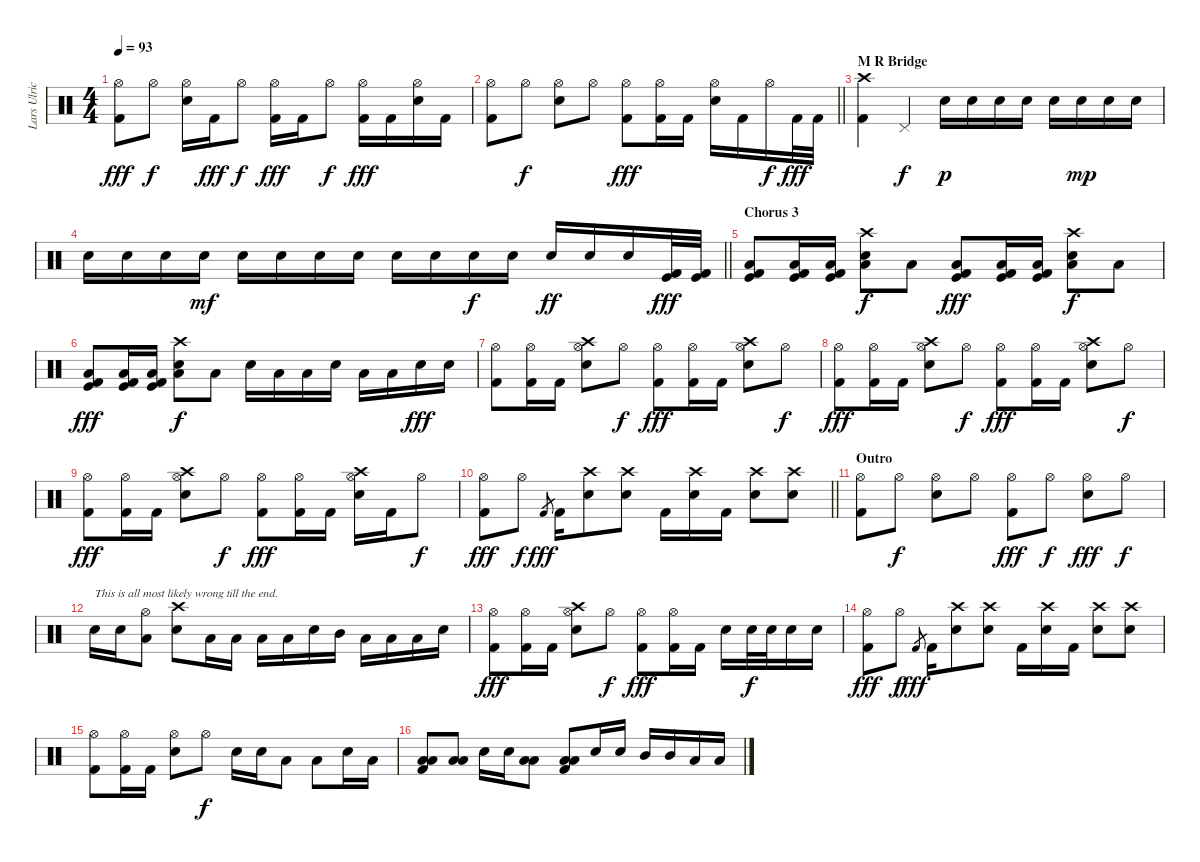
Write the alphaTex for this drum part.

\track ("Lars Ulrich" "Lars Ulric") {instrument percussion}
\staff {score}
\articulation defaults
\ts (4 4)
\tempo 93
\clef neutral
\ks c
("Hi-Hat (open)" "Kick (hit) 2").8{dy fff} "Hi-Hat (open)".8{dy f} ("Hi-Hat (open)" "Snare (hit) 2").16 "Kick (hit) 2".16{dy fff} "Hi-Hat (open)".8{dy f} ("Hi-Hat (open)" "Kick (hit) 2").16{dy fff} "Kick (hit) 2".16 "Hi-Hat (open)".8{dy f} ("Hi-Hat (open)" "Kick (hit) 2").16{dy fff} "Kick (hit) 2".16 ("Hi-Hat (open)" "Snare (hit) 2").16 "Kick (hit) 2".16 |
\barLineRight lightlight
("Hi-Hat (open)" "Kick (hit) 2").8 "Hi-Hat (open)".8{dy f} ("Hi-Hat (open)" "Snare (hit) 2").8 "Hi-Hat (open)".8 ("Hi-Hat (open)" "Kick (hit) 2").8{dy fff} ("Hi-Hat (open)" "Kick (hit) 2").16 "Kick (hit) 2".16 ("Hi-Hat (open)" "Snare (hit) 2").16 "Kick (hit) 2".16 "Hi-Hat (open)".16{dy f} "Kick (hit) 2".32{dy fff} "Kick (hit) 2".32 |
\section ("" "M R Bridge")
("Crash high (hit)" "Kick (hit) 2").4 "Pedal Hi-Hat (hit)".4{dy f} "Snare (hit) 2".16{dy p} "Snare (hit) 2".16 "Snare (hit) 2".16 "Snare (hit) 2".16 "Snare (hit) 2".16 "Snare (hit) 2".16{dy mp} "Snare (hit) 2".16 "Snare (hit) 2".16 |
\barLineRight lightlight "Snare (hit) 2".16 "Snare (hit) 2".16 "Snare (hit) 2".16 "Snare (hit) 2".16{dy mf} "Snare (hit) 2".16 "Snare (hit) 2".16 "Snare (hit) 2".16 "Snare (hit) 2".16 "Snare (hit) 2".16 "Snare (hit) 2".16 "Snare (hit) 2".16{dy f} "Snare (hit) 2".16 "Snare (hit) 2".16{dy ff} "Snare (hit) 2".16 "Snare (hit) 2".16
("Kick (hit)" "Kick (hit) 2").32{dy fff} ("Kick (hit)" "Kick (hit) 2").32 |
\section ("" "Chorus 3")
("Low Floor Tom (hit)" "Kick (hit)" "Kick (hit) 2").8 ("Low Floor Tom (hit)" "Kick (hit)" "Kick (hit) 2").16 ("Low Floor Tom (hit)" "Kick (hit)" "Kick (hit) 2").16 ("Crash high (hit)" "Snare (hit) 2" "Low Floor Tom (hit)").8{dy f} "Low Floor Tom (hit)".8 ("Low Floor Tom (hit)" "Kick (hit)" "Kick (hit) 2").8{dy fff} ("Low Floor Tom (hit)" "Kick (hit)" "Kick (hit) 2").16 ("Low Floor Tom (hit)" "Kick (hit)" "Kick (hit) 2").16 ("Crash high (hit)" "Snare (hit) 2" "Low Floor Tom (hit)").8{dy f} "Low Floor Tom (hit)".8 |
("Low Floor Tom (hit)" "Kick (hit)" "Kick (hit) 2").8{dy fff} ("Low Floor Tom (hit)" "Kick (hit)" "Kick (hit) 2").16 ("Low Floor Tom (hit)" "Kick (hit)" "Kick (hit) 2").16 ("Crash high (hit)" "Snare (hit) 2" "Low Floor Tom (hit)").8{dy f} "Low Floor Tom (hit)".8 "Snare (hit) 2".16 "Low Tom (hit)".16 "Low Floor Tom (hit)".16 "Snare (hit) 2".16 "Low Tom (hit)".16 "Low Floor Tom (hit)".16 "Snare (hit) 2".16{dy fff} "Snare (hit) 2".16 |
("Hi-Hat (open)" "Kick (hit) 2").8 ("Hi-Hat (open)" "Kick (hit) 2").16 "Kick (hit) 2".16 ("Crash high (hit)" "Hi-Hat (open)" "Snare (hit) 2").8 "Hi-Hat (open)".8{dy f} ("Hi-Hat (open)" "Kick (hit) 2").8{dy fff} ("Hi-Hat (open)" "Kick (hit) 2").16 "Kick (hit) 2".16 ("Crash high (hit)" "Hi-Hat (open)" "Snare (hit) 2").8 "Hi-Hat (open)".8{dy f} |
("Hi-Hat (open)" "Kick (hit) 2").8{dy fff} ("Hi-Hat (open)" "Kick (hit) 2").16 "Kick (hit) 2".16 ("Crash high (hit)" "Hi-Hat (open)" "Snare (hit) 2").8 "Hi-Hat (open)".8{dy f} ("Hi-Hat (open)" "Kick (hit) 2").8{dy fff} ("Hi-Hat (open)" "Kick (hit) 2").16 "Kick (hit) 2".16 ("Crash high (hit)" "Hi-Hat (open)" "Snare (hit) 2").8 "Hi-Hat (open)".8{dy f} |
("Hi-Hat (open)" "Kick (hit) 2").8{dy fff} ("Hi-Hat (open)" "Kick (hit) 2").16 "Kick (hit) 2".16 ("Crash high (hit)" "Hi-Hat (open)" "Snare (hit) 2").8 "Hi-Hat (open)".8{dy f} ("Hi-Hat (open)" "Kick (hit) 2").8{dy fff} ("Hi-Hat (open)" "Kick (hit) 2").16 "Kick (hit) 2".16 ("Crash high (hit)" "Hi-Hat (open)" "Snare (hit) 2").16 "Kick (hit) 2".16 "Hi-Hat (open)".8{dy f} |
\barLineRight lightlight
("Hi-Hat (open)" "Kick (hit) 2").8{dy fff} "Hi-Hat (open)".8{dy f} "Kick (hit) 2".8{gr dy fff} "Kick (hit) 2".16 ("Crash high (hit)" "Snare (hit) 2").8 ("Crash high (hit)" "Snare (hit) 2").8 "Kick (hit) 2".16 ("Crash high (hit)" "Snare (hit) 2").16 "Kick (hit) 2".16 ("Crash high (hit)" "Snare (hit) 2").8 ("Crash high (hit)" "Snare (hit) 2").8 |
\section ("" "Outro")
("Hi-Hat (open)" "Kick (hit) 2").8 "Hi-Hat (open)".8{dy f} ("Hi-Hat (open)" "Snare (hit) 2").8 "Hi-Hat (open)".8 ("Hi-Hat (open)" "Kick (hit) 2").8{dy fff} "Hi-Hat (open)".8{dy f} ("Hi-Hat (open)" "Snare (hit) 2").8{dy fff} "Hi-Hat (open)".8{dy f} |
"Snare (hit) 2".16{txt "This is all most likely wrong till the end."} "Snare (hit) 2".16 ("Hi-Hat (open)" "Low Floor Tom (hit)").8 ("Crash high (hit)" "Snare (hit) 2").8 "Low Tom (hit)".16 "Low Tom (hit)".16 "Low Floor Tom (hit)".16 "Low Floor Tom (hit)".16 "Snare (hit) 2".16 "Mid Tom (hit)".16 "Low Tom (hit)".16 "Low Tom (hit)".16 "Low Floor Tom (hit)".16 "Snare (hit) 2".16 |
("Hi-Hat (open)" "Kick (hit) 2").8{dy fff} ("Hi-Hat (open)" "Kick (hit) 2").16 "Kick (hit) 2".16 ("Crash high (hit)" "Hi-Hat (open)" "Snare (hit) 2").8 "Hi-Hat (open)".8{dy f} ("Hi-Hat (open)" "Kick (hit) 2").8{dy fff} ("Hi-Hat (open)" "Kick (hit) 2").16 "Kick (hit) 2".16 "Snare (hit) 2".16 "Snare (hit) 2".32{dy f} "Snare (hit) 2".32 "Snare (hit) 2".16 "Snare (hit) 2".16 |
("Hi-Hat (open)" "Kick (hit) 2").8{dy fff} "Hi-Hat (open)".8{dy f} "Kick (hit) 2".8{gr dy fff} "Kick (hit) 2".16 ("Crash high (hit)" "Snare (hit) 2").8 ("Crash high (hit)" "Snare (hit) 2").8 "Kick (hit) 2".16 ("Crash high (hit)" "Snare (hit) 2").16 "Kick (hit) 2".16 ("Crash high (hit)" "Snare (hit) 2").8 ("Crash high (hit)" "Snare (hit) 2").8 |
("Hi-Hat (open)" "Kick (hit) 2").8 ("Hi-Hat (open)" "Kick (hit) 2").16 "Kick (hit) 2".16 ("Hi-Hat (open)" "Snare (hit) 2").8 "Hi-Hat (open)".8{dy f} "Snare (hit) 2".16 "Snare (hit) 2".16 "Low Tom (hit)".8 "Low Floor Tom (hit)".8 "Snare (hit) 2".16 "Low Tom (hit)".16 |
("Low Tom (hit)" "Low Floor Tom (hit)" "Kick (hit) 2").8 ("Low Tom (hit)" "Low Floor Tom (hit)").8 "Snare (hit) 2".16 "Snare (hit) 2".16 ("Low Tom (hit)" "Low Floor Tom (hit)").8 ("Low Tom (hit)" "Low Floor Tom (hit)" "Kick (hit) 2").8 "Snare (hit) 2".16 "Snare (hit) 2".16 "Mid Tom (hit)".16 "Mid Tom (hit)".16 "Low Tom (hit)".16 "Low Floor Tom (hit)".16
